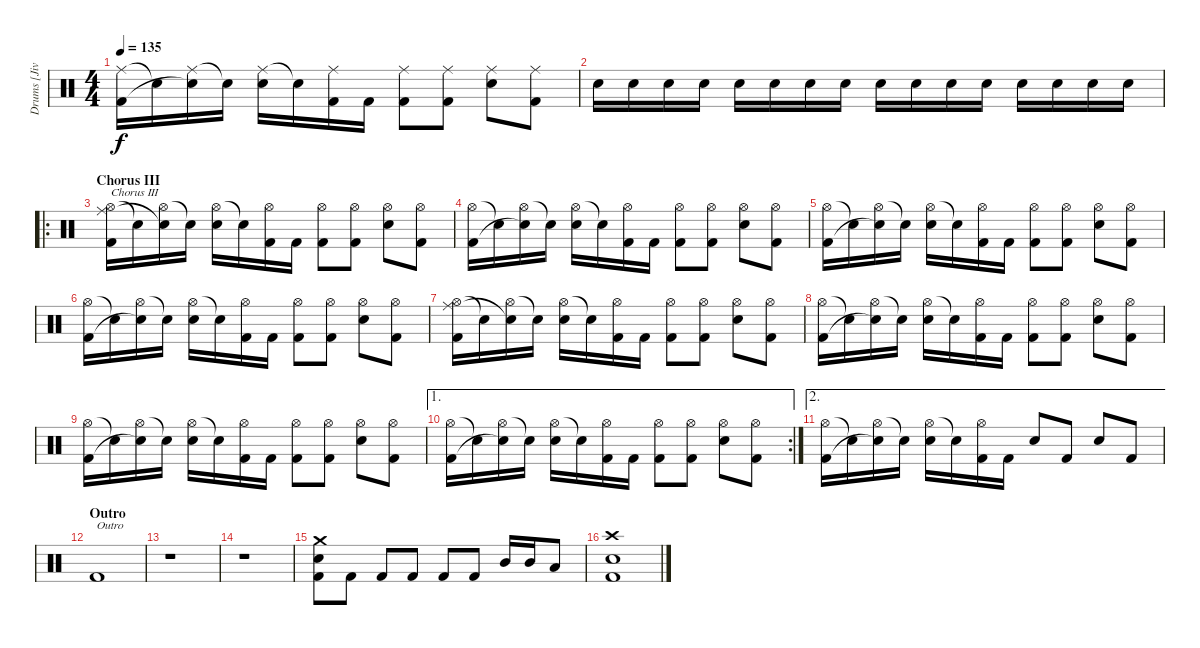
\track ("Drums [Jivarp]" "Drums [Jiv") {instrument percussion}
\staff {score}
\articulation defaults
\ts (4 4)
\tempo 135
\clef neutral
\ks c
("Ride (middle)" "Kick (hit) 2").16{dy f} "Snare (hit)"{t}.16 ("Ride (middle)" "Snare (hit)"{t}).16 "Snare (hit)"{t}.16 ("Ride (middle)" "Electric Snare (hit)").16 "Snare (hit)"{t}.16 ("Ride (middle)" "Kick (hit) 2").16 "Kick (hit) 2".16 ("Ride (middle)" "Kick (hit) 2").8 ("Ride (middle)" "Kick (hit) 2").8 ("Ride (middle)" "Electric Snare (hit)").8 ("Ride (middle)" "Kick (hit) 2").8 |
"Electric Snare (hit)".16 "Electric Snare (hit)".16 "Electric Snare (hit)".16 "Electric Snare (hit)".16 "Electric Snare (hit)".16 "Electric Snare (hit)".16 "Electric Snare (hit)".16 "Electric Snare (hit)".16 "Electric Snare (hit)".16 "Electric Snare (hit)".16 "Electric Snare (hit)".16 "Electric Snare (hit)".16 "Electric Snare (hit)".16 "Electric Snare (hit)".16 "Electric Snare (hit)".16 "Electric Snare (hit)".16 |
\ro
\section ("" "Chorus III")
("Hi-Hat (open)" "Ride (middle)" "Kick (hit) 2").16{txt "Chorus III"} "Snare (hit)"{t}.16 ("Hi-Hat (open)" "Snare (hit)"{t}).16 "Snare (hit)"{t}.16 ("Hi-Hat (open)" "Electric Snare (hit)").16 "Snare (hit)"{t}.16 ("Hi-Hat (open)" "Kick (hit) 2").16 "Kick (hit) 2".16 ("Hi-Hat (open)" "Kick (hit) 2").8 ("Hi-Hat (open)" "Kick (hit) 2").8 ("Hi-Hat (open)" "Electric Snare (hit)").8 ("Hi-Hat (open)" "Kick (hit) 2").8 |
("Hi-Hat (open)" "Kick (hit) 2").16 "Snare (hit)"{t}.16 ("Hi-Hat (open)" "Snare (hit)"{t}).16 "Snare (hit)"{t}.16 ("Hi-Hat (open)" "Electric Snare (hit)").16 "Snare (hit)"{t}.16 ("Hi-Hat (open)" "Kick (hit) 2").16 "Kick (hit) 2".16 ("Hi-Hat (open)" "Kick (hit) 2").8 ("Hi-Hat (open)" "Kick (hit) 2").8 ("Hi-Hat (open)" "Electric Snare (hit)").8 ("Hi-Hat (open)" "Kick (hit) 2").8 |
("Hi-Hat (open)" "Kick (hit) 2").16 "Snare (hit)"{t}.16 ("Hi-Hat (open)" "Snare (hit)"{t}).16 "Snare (hit)"{t}.16 ("Hi-Hat (open)" "Electric Snare (hit)").16 "Snare (hit)"{t}.16 ("Hi-Hat (open)" "Kick (hit) 2").16 "Kick (hit) 2".16 ("Hi-Hat (open)" "Kick (hit) 2").8 ("Hi-Hat (open)" "Kick (hit) 2").8 ("Hi-Hat (open)" "Electric Snare (hit)").8 ("Hi-Hat (open)" "Kick (hit) 2").8 |
("Hi-Hat (open)" "Kick (hit) 2").16 "Snare (hit)"{t}.16 ("Hi-Hat (open)" "Snare (hit)"{t}).16 "Snare (hit)"{t}.16 ("Hi-Hat (open)" "Electric Snare (hit)").16 "Snare (hit)"{t}.16 ("Hi-Hat (open)" "Kick (hit) 2").16 "Kick (hit) 2".16 ("Hi-Hat (open)" "Kick (hit) 2").8 ("Hi-Hat (open)" "Kick (hit) 2").8 ("Hi-Hat (open)" "Electric Snare (hit)").8 ("Hi-Hat (open)" "Kick (hit) 2").8 |
("Hi-Hat (open)" "Ride (middle)" "Kick (hit) 2").16 "Snare (hit)"{t}.16 ("Hi-Hat (open)" "Snare (hit)"{t}).16 "Snare (hit)"{t}.16 ("Hi-Hat (open)" "Electric Snare (hit)").16 "Snare (hit)"{t}.16 ("Hi-Hat (open)" "Kick (hit) 2").16 "Kick (hit) 2".16 ("Hi-Hat (open)" "Kick (hit) 2").8 ("Hi-Hat (open)" "Kick (hit) 2").8 ("Hi-Hat (open)" "Electric Snare (hit)").8 ("Hi-Hat (open)" "Kick (hit) 2").8 |
("Hi-Hat (open)" "Kick (hit) 2").16 "Snare (hit)"{t}.16 ("Hi-Hat (open)" "Snare (hit)"{t}).16 "Snare (hit)"{t}.16 ("Hi-Hat (open)" "Electric Snare (hit)").16 "Snare (hit)"{t}.16 ("Hi-Hat (open)" "Kick (hit) 2").16 "Kick (hit) 2".16 ("Hi-Hat (open)" "Kick (hit) 2").8 ("Hi-Hat (open)" "Kick (hit) 2").8 ("Hi-Hat (open)" "Electric Snare (hit)").8 ("Hi-Hat (open)" "Kick (hit) 2").8 |
("Hi-Hat (open)" "Kick (hit) 2").16 "Snare (hit)"{t}.16 ("Hi-Hat (open)" "Snare (hit)"{t}).16 "Snare (hit)"{t}.16 ("Hi-Hat (open)" "Electric Snare (hit)").16 "Snare (hit)"{t}.16 ("Hi-Hat (open)" "Kick (hit) 2").16 "Kick (hit) 2".16 ("Hi-Hat (open)" "Kick (hit) 2").8 ("Hi-Hat (open)" "Kick (hit) 2").8 ("Hi-Hat (open)" "Electric Snare (hit)").8 ("Hi-Hat (open)" "Kick (hit) 2").8 |
\ae 1
\rc 2
("Hi-Hat (open)" "Kick (hit) 2").16 "Snare (hit)"{t}.16 ("Hi-Hat (open)" "Snare (hit)"{t}).16 "Snare (hit)"{t}.16 ("Hi-Hat (open)" "Electric Snare (hit)").16 "Snare (hit)"{t}.16 ("Hi-Hat (open)" "Kick (hit) 2").16 "Kick (hit) 2".16 ("Hi-Hat (open)" "Kick (hit) 2").8 ("Hi-Hat (open)" "Kick (hit) 2").8 ("Hi-Hat (open)" "Electric Snare (hit)").8 ("Hi-Hat (open)" "Kick (hit) 2").8 |
\ae 2
("Hi-Hat (open)" "Kick (hit) 2").16 "Snare (hit)"{t}.16 ("Hi-Hat (open)" "Snare (hit)"{t}).16 "Snare (hit)"{t}.16 ("Hi-Hat (open)" "Electric Snare (hit)").16 "Snare (hit)"{t}.16 ("Hi-Hat (open)" "Kick (hit) 2").16 "Kick (hit) 2".16 "Electric Snare (hit)".8 "Kick (hit) 2".8 "Electric Snare (hit)".8 "Kick (hit) 2".8 |
\section ("" "Outro")
"Kick (hit) 2".1{txt "Outro"} |
r.1 |
r.1 |
("Crash medium (hit)" "Electric Snare (hit)" "Kick (hit) 2").8 "Kick (hit) 2".8 "Kick (hit) 2".8 "Kick (hit) 2".8 "Kick (hit) 2".8 "Kick (hit) 2".8 "Mid Tom (hit)".16 "Mid Tom (hit)".16 "Low Tom (hit)".8 |
("Crash high (hit)" "Electric Snare (hit)" "Kick (hit) 2").1
